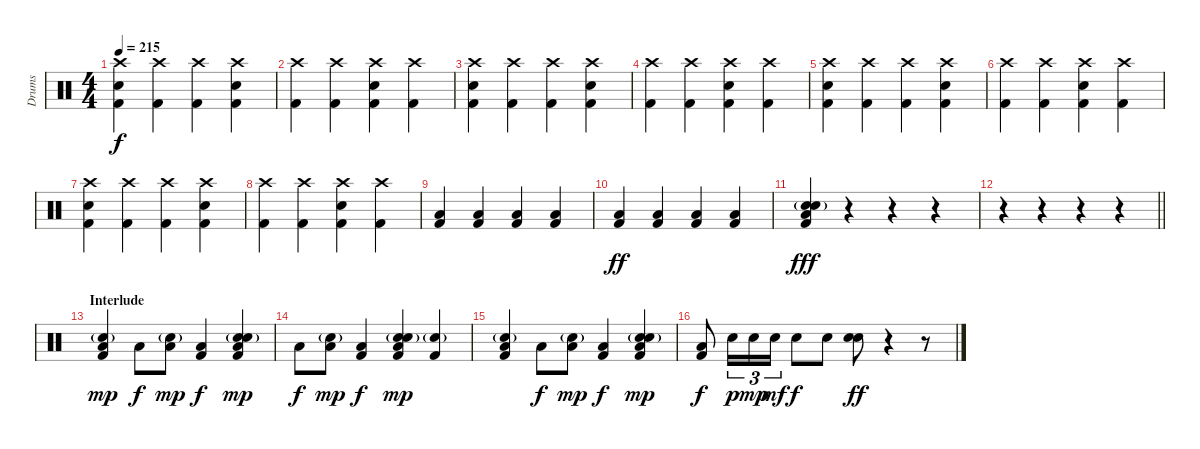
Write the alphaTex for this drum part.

\track ("Drums" "Drums") {instrument percussion}
\staff {score}
\articulation defaults
\ts (4 4)
\tempo 215
\clef neutral
\ks c
("Kick (hit) 2" "Snare (hit) 2" "Crash high (hit)").4{dy f} ("Kick (hit) 2" "Crash high (hit)").4 ("Kick (hit) 2" "Crash high (hit)").4 ("Kick (hit) 2" "Snare (hit) 2" "Crash high (hit)").4 |
("Kick (hit) 2" "Crash high (hit)").4 ("Kick (hit) 2" "Crash high (hit)").4 ("Kick (hit) 2" "Snare (hit) 2" "Crash high (hit)").4 ("Kick (hit) 2" "Crash high (hit)").4 |
("Kick (hit) 2" "Snare (hit) 2" "Crash high (hit)").4 ("Kick (hit) 2" "Crash high (hit)").4 ("Kick (hit) 2" "Crash high (hit)").4 ("Kick (hit) 2" "Snare (hit) 2" "Crash high (hit)").4 |
("Kick (hit) 2" "Crash high (hit)").4 ("Kick (hit) 2" "Crash high (hit)").4 ("Kick (hit) 2" "Snare (hit) 2" "Crash high (hit)").4 ("Kick (hit) 2" "Crash high (hit)").4 |
("Kick (hit) 2" "Snare (hit) 2" "Crash high (hit)").4 ("Kick (hit) 2" "Crash high (hit)").4 ("Kick (hit) 2" "Crash high (hit)").4 ("Kick (hit) 2" "Snare (hit) 2" "Crash high (hit)").4 |
("Kick (hit) 2" "Crash high (hit)").4 ("Kick (hit) 2" "Crash high (hit)").4 ("Kick (hit) 2" "Snare (hit) 2" "Crash high (hit)").4 ("Kick (hit) 2" "Crash high (hit)").4 |
("Kick (hit) 2" "Snare (hit) 2" "Crash high (hit)").4 ("Kick (hit) 2" "Crash high (hit)").4 ("Kick (hit) 2" "Crash high (hit)").4 ("Kick (hit) 2" "Snare (hit) 2" "Crash high (hit)").4 |
("Kick (hit) 2" "Crash high (hit)").4 ("Kick (hit) 2" "Crash high (hit)").4 ("Kick (hit) 2" "Snare (hit) 2" "Crash high (hit)").4 ("Kick (hit) 2" "Crash high (hit)").4 |
("Kick (hit) 2" "Low Floor Tom (hit)").4 ("Kick (hit) 2" "Low Floor Tom (hit)").4 ("Kick (hit) 2" "Low Floor Tom (hit)").4 ("Kick (hit) 2" "Low Floor Tom (hit)").4 |
("Kick (hit) 2" "Low Floor Tom (hit)").4{dy ff} ("Kick (hit) 2" "Low Floor Tom (hit)").4 ("Kick (hit) 2" "Low Floor Tom (hit)").4 ("Kick (hit) 2" "Low Floor Tom (hit)").4 |
("Snare (hit) 2"{g} "Electric Snare (hit)"{g} "Kick (hit) 2" "Low Floor Tom (hit)").4{dy fff} r.4 r.4 r.4 |
\barLineRight lightlight
r.4 r.4 r.4 r.4 |
\section ("" "Interlude")
("Electric Snare (hit)"{g} "Low Floor Tom (hit)" "Kick (hit) 2").4{dy mp} "Low Floor Tom (hit)".8{dy f} ("Electric Snare (hit)"{g} "Low Floor Tom (hit)").8{dy mp} ("Low Floor Tom (hit)" "Kick (hit) 2").4{dy f} ("Electric Snare (hit)" "Kick (hit) 2" "Low Floor Tom (hit)" "Snare (hit) 2"{g}).4{dy mp} |
"Low Floor Tom (hit)".8{dy f} ("Electric Snare (hit)"{g} "Low Floor Tom (hit)").8{dy mp} ("Low Floor Tom (hit)" "Kick (hit) 2").4{dy f} ("Snare (hit) 2"{g} "Electric Snare (hit)" "Kick (hit) 2" "Low Floor Tom (hit)").4{dy mp} ("Electric Snare (hit)"{g} "Kick (hit) 2").4 |
("Electric Snare (hit)"{g} "Low Floor Tom (hit)" "Kick (hit) 2").4 "Low Floor Tom (hit)".8{dy f} ("Electric Snare (hit)"{g} "Low Floor Tom (hit)").8{dy mp} ("Low Floor Tom (hit)" "Kick (hit) 2").4{dy f} ("Electric Snare (hit)" "Kick (hit) 2" "Low Floor Tom (hit)" "Snare (hit) 2"{g}).4{dy mp} |
("Low Floor Tom (hit)" "Kick (hit) 2").8{dy f} "Snare (hit) 2".16{tu (3 2) dy p} "Snare (hit) 2".16{tu (3 2) dy mp} "Snare (hit) 2".16{tu (3 2) dy mf} "Snare (hit) 2".8{dy f} "Snare (hit) 2".8 ("Electric Snare (hit)" "Snare (hit) 2").8{dy ff} r.4 r.8
